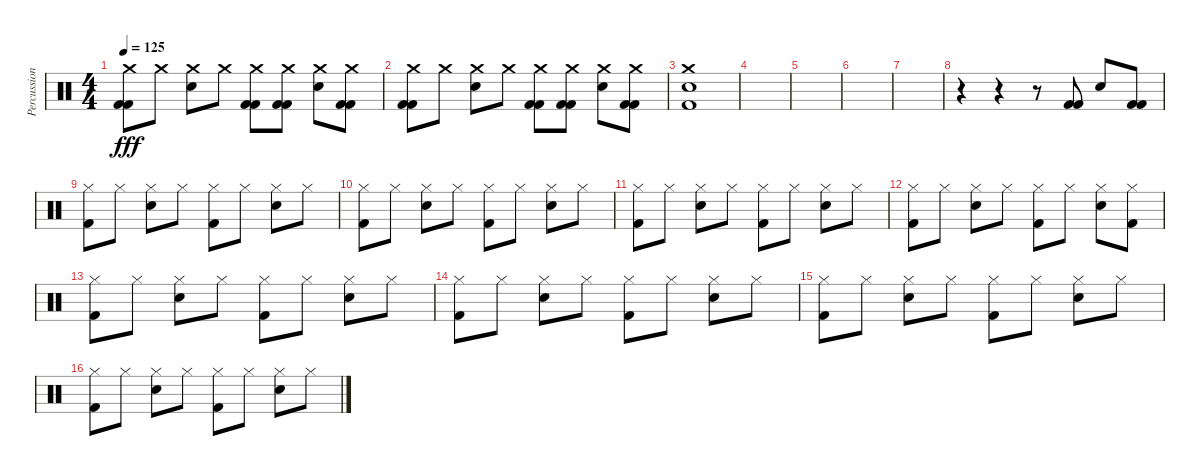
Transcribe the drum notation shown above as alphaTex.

\track ("Percussion" "Percussion") {instrument percussion}
\staff {score}
\articulation defaults
\ts (4 4)
\tempo 125
\clef neutral
\ks c
("Crash medium (hit)" "Kick (hit) 2" "Kick (hit) 2").8{dy fff} "Crash medium (hit)".8 ("Crash medium (hit)" "Snare (hit) 2").8 "Crash medium (hit)".8 ("Crash medium (hit)" "Kick (hit) 2" "Kick (hit) 2").8 ("Crash medium (hit)" "Kick (hit) 2" "Kick (hit) 2").8 ("Crash medium (hit)" "Snare (hit) 2").8 ("Crash medium (hit)" "Kick (hit) 2" "Kick (hit) 2").8 |
("Crash medium (hit)" "Kick (hit) 2" "Kick (hit) 2").8 "Crash medium (hit)".8 ("Crash medium (hit)" "Snare (hit) 2").8 "Crash medium (hit)".8 ("Crash medium (hit)" "Kick (hit) 2" "Kick (hit) 2").8 ("Crash medium (hit)" "Kick (hit) 2" "Kick (hit) 2").8 ("Crash medium (hit)" "Snare (hit) 2").8 ("Crash medium (hit)" "Kick (hit) 2" "Kick (hit) 2").8 |
("Crash medium (hit)" "Snare (hit) 2" "Kick (hit) 2").1 |
|
|
|
|
r.4 r.4 r.8 ("Kick (hit) 2" "Kick (hit) 2").8 "Snare (hit) 2".8 ("Kick (hit) 2" "Kick (hit) 2").8 |
("Hi-Hat (closed)" "Kick (hit) 2").8 "Hi-Hat (closed)".8 ("Hi-Hat (closed)" "Snare (hit) 2").8 "Hi-Hat (closed)".8 ("Hi-Hat (closed)" "Kick (hit) 2").8 "Hi-Hat (closed)".8 ("Hi-Hat (closed)" "Snare (hit) 2").8 "Hi-Hat (closed)".8 |
("Hi-Hat (closed)" "Kick (hit) 2").8 "Hi-Hat (closed)".8 ("Hi-Hat (closed)" "Snare (hit) 2").8 "Hi-Hat (closed)".8 ("Hi-Hat (closed)" "Kick (hit) 2").8 "Hi-Hat (closed)".8 ("Hi-Hat (closed)" "Snare (hit) 2").8 "Hi-Hat (closed)".8 |
("Hi-Hat (closed)" "Kick (hit) 2").8 "Hi-Hat (closed)".8 ("Hi-Hat (closed)" "Snare (hit) 2").8 "Hi-Hat (closed)".8 ("Hi-Hat (closed)" "Kick (hit) 2").8 "Hi-Hat (closed)".8 ("Hi-Hat (closed)" "Snare (hit) 2").8 "Hi-Hat (closed)".8 |
("Hi-Hat (closed)" "Kick (hit) 2").8 "Hi-Hat (closed)".8 ("Hi-Hat (closed)" "Snare (hit) 2").8 "Hi-Hat (closed)".8 ("Hi-Hat (closed)" "Kick (hit) 2").8 "Hi-Hat (closed)".8 ("Hi-Hat (closed)" "Snare (hit) 2").8 ("Hi-Hat (closed)" "Kick (hit) 2").8 |
("Hi-Hat (closed)" "Kick (hit) 2").8 "Hi-Hat (closed)".8 ("Hi-Hat (closed)" "Snare (hit) 2").8 "Hi-Hat (closed)".8 ("Hi-Hat (closed)" "Kick (hit) 2").8 "Hi-Hat (closed)".8 ("Hi-Hat (closed)" "Snare (hit) 2").8 "Hi-Hat (closed)".8 |
("Hi-Hat (closed)" "Kick (hit) 2").8 "Hi-Hat (closed)".8 ("Hi-Hat (closed)" "Snare (hit) 2").8 "Hi-Hat (closed)".8 ("Hi-Hat (closed)" "Kick (hit) 2").8 "Hi-Hat (closed)".8 ("Hi-Hat (closed)" "Snare (hit) 2").8 "Hi-Hat (closed)".8 |
("Hi-Hat (closed)" "Kick (hit) 2").8 "Hi-Hat (closed)".8 ("Hi-Hat (closed)" "Snare (hit) 2").8 "Hi-Hat (closed)".8 ("Hi-Hat (closed)" "Kick (hit) 2").8 "Hi-Hat (closed)".8 ("Hi-Hat (closed)" "Snare (hit) 2").8 "Hi-Hat (closed)".8 |
("Hi-Hat (closed)" "Kick (hit) 2").8 "Hi-Hat (closed)".8 ("Hi-Hat (closed)" "Snare (hit) 2").8 "Hi-Hat (closed)".8 ("Hi-Hat (closed)" "Kick (hit) 2").8 "Hi-Hat (closed)".8 ("Hi-Hat (closed)" "Snare (hit) 2").8 "Hi-Hat (closed)".8
